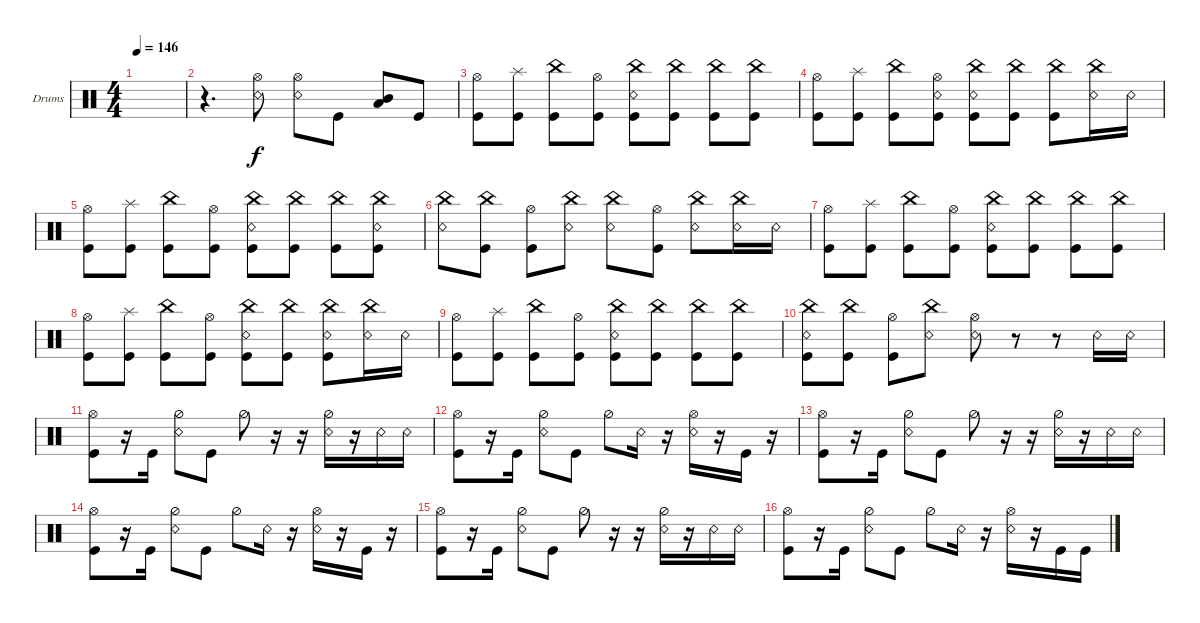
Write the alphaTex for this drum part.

\defaultSystemsLayout 4
\bracketExtendMode groupsimilarinstruments
\firstSystemTrackNameOrientation horizontal
\otherSystemsTrackNameOrientation horizontal
\track ("Drums" "Drums") {instrument percussion}
\staff {score}
\articulation defaults
\ts (4 4)
\tempo 146
\clef neutral
\ks c
|
r.4{d} ("Snare (rim shot)" "Hi-Hat (open)").8 ("Snare (rim shot)" "Hi-Hat (open)").8 "Kick (hit)".8 ("Mid Tom (hit)" "Low Tom (hit)").8 "Kick (hit)".8 |
("Kick (hit)" "Hi-Hat (open)").8 ("Kick (hit)" "Splash (hit)").8 ("Kick (hit)" "China (hit)").8 ("Kick (hit)" "Hi-Hat (open)").8 ("Snare (rim shot)" "Kick (hit)" "China (hit)").8 ("Kick (hit)" "China (hit)").8 ("Kick (hit)" "China (hit)").8 ("Kick (hit)" "China (hit)").8 |
("Kick (hit)" "Hi-Hat (open)").8 ("Kick (hit)" "Splash (hit)").8 ("Kick (hit)" "China (hit)").8 ("Kick (hit)" "Hi-Hat (open)" "Snare (rim shot)").8 ("Snare (rim shot)" "Kick (hit)" "China (hit)").8 ("Kick (hit)" "China (hit)").8 ("Kick (hit)" "China (hit)").8 ("China (hit)" "Snare (rim shot)").16 "Snare (rim shot)".16 |
("Kick (hit)" "Hi-Hat (open)").8 ("Kick (hit)" "Splash (hit)").8 ("Kick (hit)" "China (hit)").8 ("Kick (hit)" "Hi-Hat (open)").8 ("Snare (rim shot)" "Kick (hit)" "China (hit)").8 ("Kick (hit)" "China (hit)").8 ("Kick (hit)" "China (hit)").8 ("Kick (hit)" "China (hit)" "Snare (rim shot)").8 |
("Snare (rim shot)" "China (hit)").8 ("Kick (hit)" "China (hit)").8 ("Kick (hit)" "Hi-Hat (open)").8 ("Snare (rim shot)" "China (hit)").8 ("Snare (rim shot)" "China (hit)").8 ("Kick (hit)" "Hi-Hat (open)").8 ("Snare (rim shot)" "China (hit)").8 ("Snare (rim shot)" "China (hit)").16 "Snare (rim shot)".16 |
("Kick (hit)" "Hi-Hat (open)").8 ("Kick (hit)" "Splash (hit)").8 ("Kick (hit)" "China (hit)").8 ("Kick (hit)" "Hi-Hat (open)").8 ("Snare (rim shot)" "Kick (hit)" "China (hit)").8 ("Kick (hit)" "China (hit)").8 ("Kick (hit)" "China (hit)").8 ("Kick (hit)" "China (hit)").8 |
("Kick (hit)" "Hi-Hat (open)").8 ("Kick (hit)" "Splash (hit)").8 ("Kick (hit)" "China (hit)").8 ("Kick (hit)" "Hi-Hat (open)").8 ("Kick (hit)" "China (hit)" "Snare (rim shot)").8 ("Kick (hit)" "China (hit)").8 ("Kick (hit)" "China (hit)" "Snare (rim shot)").8 ("China (hit)" "Snare (rim shot)").16 "Snare (rim shot)".16 |
("Kick (hit)" "Hi-Hat (open)").8 ("Kick (hit)" "Splash (hit)").8 ("Kick (hit)" "China (hit)").8 ("Kick (hit)" "Hi-Hat (open)").8 ("Kick (hit)" "China (hit)" "Snare (rim shot)").8 ("Kick (hit)" "China (hit)").8 ("Kick (hit)" "China (hit)").8 ("Kick (hit)" "China (hit)").8 |
("China (hit)" "Kick (hit)" "Snare (rim shot)").8 ("Kick (hit)" "China (hit)").8 ("Kick (hit)" "Hi-Hat (open)").8 ("Snare (rim shot)" "China (hit)").8 ("Snare (rim shot)" "Hi-Hat (open)").8 r.8 r.8 "Snare (rim shot)".16 "Snare (rim shot)".16 |
("Hi-Hat (open)" "Kick (hit)").8 r.16 "Kick (hit)".16 ("Snare (rim shot)" "Hi-Hat (half)").8 "Kick (hit)".8 "Hi-Hat (half)".8 r.16 r.16 ("Hi-Hat (half)" "Snare (rim shot)").16 r.16 "Snare (rim shot)".16 "Snare (rim shot)".16 |
("Hi-Hat (open)" "Kick (hit)").8 r.16 "Kick (hit)".16 ("Snare (rim shot)" "Hi-Hat (half)").8 "Kick (hit)".8 "Hi-Hat (half)".8 "Snare (rim shot)".16 r.16 ("Snare (rim shot)" "Hi-Hat (open)").16 r.16 "Kick (hit)".16 r.16 |
("Hi-Hat (open)" "Kick (hit)").8 r.16 "Kick (hit)".16 ("Snare (rim shot)" "Hi-Hat (half)").8 "Kick (hit)".8 "Hi-Hat (half)".8 r.16 r.16 ("Hi-Hat (half)" "Snare (rim shot)").16 r.16 "Snare (rim shot)".16 "Snare (rim shot)".16 |
("Hi-Hat (open)" "Kick (hit)").8 r.16 "Kick (hit)".16 ("Snare (rim shot)" "Hi-Hat (half)").8 "Kick (hit)".8 "Hi-Hat (half)".8 "Snare (rim shot)".16 r.16 ("Snare (rim shot)" "Hi-Hat (open)").16 r.16 "Kick (hit)".16 r.16 |
("Hi-Hat (open)" "Kick (hit)").8 r.16 "Kick (hit)".16 ("Snare (rim shot)" "Hi-Hat (half)").8 "Kick (hit)".8 "Hi-Hat (half)".8 r.16 r.16 ("Hi-Hat (half)" "Snare (rim shot)").16 r.16 "Snare (rim shot)".16 "Snare (rim shot)".16 |
("Hi-Hat (open)" "Kick (hit)").8 r.16 "Kick (hit)".16 ("Snare (rim shot)" "Hi-Hat (half)").8 "Kick (hit)".8 "Hi-Hat (half)".8 "Snare (rim shot)".16 r.16 ("Snare (rim shot)" "Hi-Hat (open)").16 r.16 "Kick (hit)".16 "Kick (hit)".16
